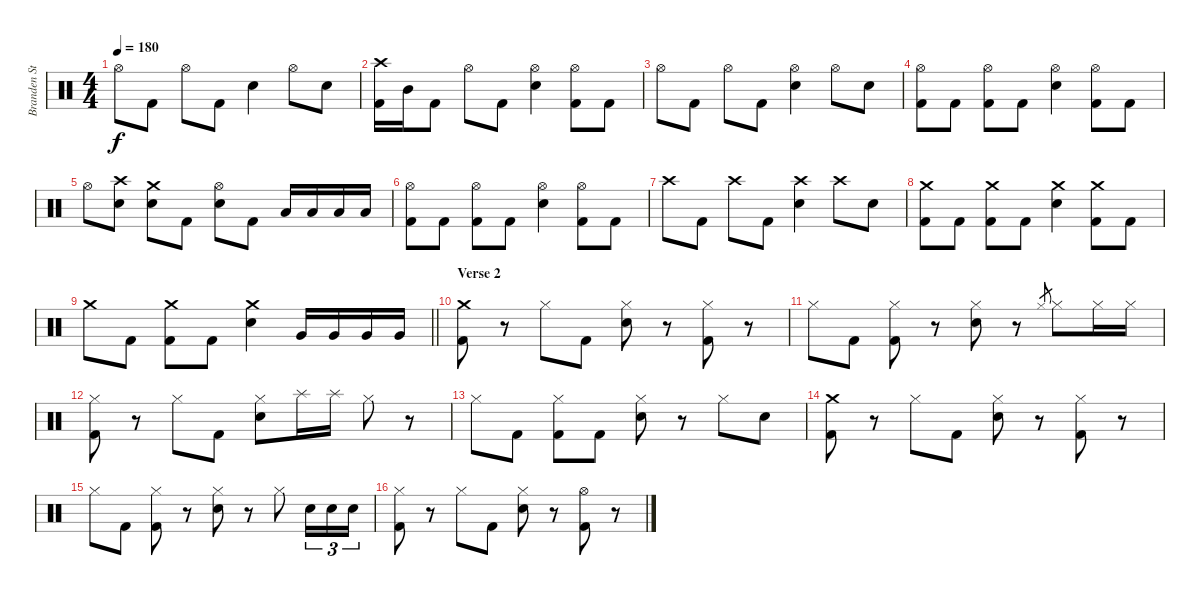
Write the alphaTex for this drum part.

\track ("Branden Steineckert" "Branden St") {instrument percussion}
\staff {score}
\articulation defaults
\ts (4 4)
\tempo 180
\clef neutral
\ks c "Hi-Hat (open)".8{dy f} "Kick (hit) 2".8 "Hi-Hat (open)".8 "Kick (hit) 2".8 "Electric Snare (hit)".4 "Hi-Hat (open)".8 "Electric Snare (hit)".8
|
("Crash high (hit)" "Kick (hit) 2").16 "Mid Tom (hit)".16 "Kick (hit) 2".8 "Hi-Hat (open)".8 "Kick (hit) 2".8 ("Hi-Hat (open)" "Electric Snare (hit)").4 ("Hi-Hat (open)" "Kick (hit) 2").8 "Kick (hit) 2".8 |
"Hi-Hat (open)".8 "Kick (hit) 2".8 "Hi-Hat (open)".8 "Kick (hit) 2".8 ("Hi-Hat (open)" "Electric Snare (hit)").4 "Hi-Hat (open)".8 "Electric Snare (hit)".8 |
("Hi-Hat (open)" "Kick (hit) 2").8 "Kick (hit) 2".8 ("Hi-Hat (open)" "Kick (hit) 2").8 "Kick (hit) 2".8 ("Hi-Hat (open)" "Electric Snare (hit)").4 ("Hi-Hat (open)" "Kick (hit) 2").8 "Kick (hit) 2".8 |
"Hi-Hat (open)".8 ("Crash high (hit)" "Electric Snare (hit)").8 ("Crash medium (hit)" "Electric Snare (hit)").8 "Kick (hit) 2".8 ("Hi-Hat (open)" "Electric Snare (hit)").8 "Kick (hit) 2".8 "Low Floor Tom (hit)".16 "Low Floor Tom (hit)".16 "Low Floor Tom (hit)".16 "Low Floor Tom (hit)".16 |
("Hi-Hat (open)" "Kick (hit) 2").8 "Kick (hit) 2".8 ("Hi-Hat (open)" "Kick (hit) 2").8 "Kick (hit) 2".8 ("Hi-Hat (open)" "Electric Snare (hit)").4 ("Hi-Hat (open)" "Kick (hit) 2").8 "Kick (hit) 2".8 |
"Crash high (hit)".8 "Kick (hit) 2".8 "Crash high (hit)".8 "Kick (hit) 2".8 ("Crash high (hit)" "Electric Snare (hit)").4 "Crash high (hit)".8 "Electric Snare (hit)".8 |
("Crash medium (hit)" "Kick (hit) 2").8 "Kick (hit) 2".8 ("Crash medium (hit)" "Kick (hit) 2").8 "Kick (hit) 2".8 ("Crash medium (hit)" "Electric Snare (hit)").4 ("Crash medium (hit)" "Kick (hit) 2").8 "Kick (hit) 2".8 |
\barLineRight lightlight "Crash medium (hit)".8 "Kick (hit) 2".8
("Crash medium (hit)" "Kick (hit) 2").8 "Kick (hit) 2".8 ("Crash medium (hit)" "Electric Snare (hit)").4 "Very Low Tom (hit)".16 "Very Low Tom (hit)".16 "Very Low Tom (hit)".16 "Very Low Tom (hit)".16 |
\section ("" "Verse 2")
("Crash medium (hit)" "Kick (hit) 2").8 r.8 "Hi-Hat (closed)".8 "Kick (hit) 2".8 ("Hi-Hat (closed)" "Electric Snare (hit)").8 r.8 ("Hi-Hat (closed)" "Kick (hit) 2").8 r.8 |
"Hi-Hat (closed)".8 "Kick (hit) 2".8 ("Hi-Hat (closed)" "Kick (hit) 2").8 r.8 ("Hi-Hat (closed)" "Electric Snare (hit)").8 r.8 "Hi-Hat (closed)".8{gr} "Hi-Hat (closed)".8 "Hi-Hat (closed)".16 "Hi-Hat (closed)".16 |
("Hi-Hat (closed)" "Kick (hit) 2").8 r.8 "Hi-Hat (closed)".8 "Kick (hit) 2".8 ("Hi-Hat (closed)" "Electric Snare (hit)").8 "Splash (hit)".16 "Splash (hit)".16 "Hi-Hat (closed)".8 r.8 |
"Hi-Hat (closed)".8 "Kick (hit) 2".8 ("Hi-Hat (closed)" "Kick (hit) 2").8 "Kick (hit) 2".8 ("Hi-Hat (closed)" "Electric Snare (hit)").8 r.8 "Hi-Hat (closed)".8 "Electric Snare (hit)".8 |
("Crash medium (hit)" "Kick (hit) 2").8 r.8 "Hi-Hat (closed)".8 "Kick (hit) 2".8 ("Hi-Hat (closed)" "Electric Snare (hit)").8 r.8 ("Hi-Hat (closed)" "Kick (hit) 2").8 r.8 |
"Hi-Hat (closed)".8 "Kick (hit) 2".8 ("Hi-Hat (closed)" "Kick (hit) 2").8 r.8 ("Hi-Hat (closed)" "Electric Snare (hit)").8 r.8 "Hi-Hat (closed)".8 "Electric Snare (hit)".16{tu (3 2)} "Electric Snare (hit)".16{tu (3 2)} "Electric Snare (hit)".16{tu (3 2)} |
("Hi-Hat (closed)" "Kick (hit) 2").8 r.8 "Hi-Hat (closed)".8 "Kick (hit) 2".8 ("Hi-Hat (closed)" "Electric Snare (hit)").8 r.8 ("Hi-Hat (open)" "Kick (hit) 2").8 r.8
